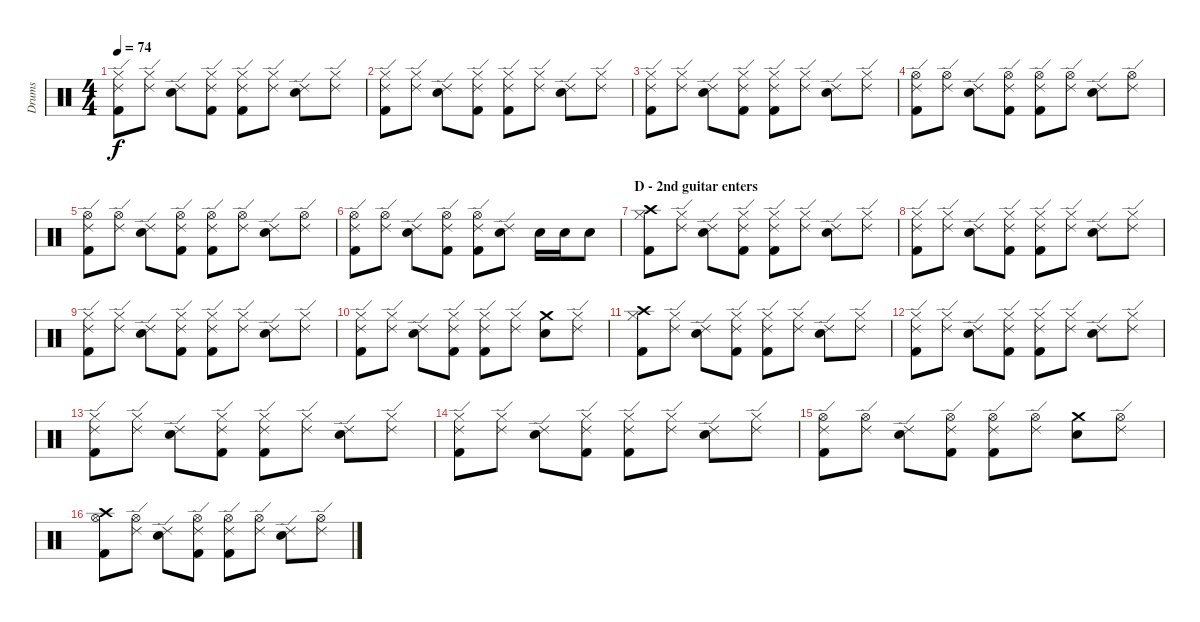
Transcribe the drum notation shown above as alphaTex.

\track ("Drums" "Drums") {instrument percussion}
\staff {score}
\articulation defaults
\ts (4 4)
\tempo 74
\clef neutral
\ks c
("Hi-Hat (closed)" "Ride (edge) 2" "Kick (hit) 2").8{dy f} ("Hi-Hat (closed)" "Ride (edge) 2").8 ("Ride (edge) 2" "Snare (hit) 2").8 ("Hi-Hat (closed)" "Ride (edge) 2" "Kick (hit) 2").8 ("Hi-Hat (closed)" "Ride (edge) 2" "Kick (hit) 2").8 ("Hi-Hat (closed)" "Ride (edge) 2").8 ("Ride (edge) 2" "Snare (hit) 2").8 ("Hi-Hat (closed)" "Ride (edge) 2").8 |
("Hi-Hat (closed)" "Ride (edge) 2" "Kick (hit) 2").8 ("Hi-Hat (closed)" "Ride (edge) 2").8 ("Ride (edge) 2" "Snare (hit) 2").8 ("Hi-Hat (closed)" "Ride (edge) 2" "Kick (hit) 2").8 ("Hi-Hat (closed)" "Ride (edge) 2" "Kick (hit) 2").8 ("Hi-Hat (closed)" "Ride (edge) 2").8 ("Ride (edge) 2" "Snare (hit) 2").8 ("Hi-Hat (closed)" "Ride (edge) 2").8 |
("Hi-Hat (closed)" "Ride (edge) 2" "Kick (hit) 2").8 ("Hi-Hat (closed)" "Ride (edge) 2").8 ("Ride (edge) 2" "Snare (hit) 2").8 ("Hi-Hat (closed)" "Ride (edge) 2" "Kick (hit) 2").8 ("Hi-Hat (closed)" "Ride (edge) 2" "Kick (hit) 2").8 ("Hi-Hat (closed)" "Ride (edge) 2").8 ("Ride (edge) 2" "Snare (hit) 2").8 ("Hi-Hat (closed)" "Ride (edge) 2").8 |
("Hi-Hat (open)" "Ride (edge) 2" "Kick (hit) 2").8 ("Hi-Hat (open)" "Ride (edge) 2").8 ("Ride (edge) 2" "Snare (hit) 2").8 ("Hi-Hat (open)" "Ride (edge) 2" "Kick (hit) 2").8 ("Hi-Hat (open)" "Ride (edge) 2" "Kick (hit) 2").8 ("Hi-Hat (open)" "Ride (edge) 2").8 ("Ride (edge) 2" "Snare (hit) 2").8 ("Hi-Hat (open)" "Ride (edge) 2").8 |
("Hi-Hat (open)" "Ride (edge) 2" "Kick (hit) 2").8 ("Hi-Hat (open)" "Ride (edge) 2").8 ("Ride (edge) 2" "Snare (hit) 2").8 ("Hi-Hat (open)" "Ride (edge) 2" "Kick (hit) 2").8 ("Hi-Hat (open)" "Ride (edge) 2" "Kick (hit) 2").8 ("Hi-Hat (open)" "Ride (edge) 2").8 ("Ride (edge) 2" "Snare (hit) 2").8 ("Hi-Hat (open)" "Ride (edge) 2").8 |
("Hi-Hat (open)" "Ride (edge) 2" "Kick (hit) 2").8 ("Hi-Hat (open)" "Ride (edge) 2").8 ("Ride (edge) 2" "Snare (hit) 2").8 ("Hi-Hat (open)" "Ride (edge) 2" "Kick (hit) 2").8 ("Hi-Hat (open)" "Ride (edge) 2" "Kick (hit) 2").8 ("Ride (edge) 2" "Snare (hit) 2").8 "Snare (hit) 2".16 "Snare (hit) 2".16 "Snare (hit) 2".8 |
\section ("" "D - 2nd guitar enters")
("Hi-Hat (closed)" "Crash high (hit)" "Kick (hit) 2").8 ("Hi-Hat (closed)" "Ride (edge) 2").8 ("Ride (edge) 2" "Snare (hit) 2").8 ("Hi-Hat (closed)" "Ride (edge) 2" "Kick (hit) 2").8 ("Hi-Hat (closed)" "Ride (edge) 2" "Kick (hit) 2").8 ("Hi-Hat (closed)" "Ride (edge) 2").8 ("Ride (edge) 2" "Snare (hit) 2").8 ("Hi-Hat (closed)" "Ride (edge) 2").8 |
("Hi-Hat (closed)" "Ride (edge) 2" "Kick (hit) 2").8 ("Hi-Hat (closed)" "Ride (edge) 2").8 ("Ride (edge) 2" "Snare (hit) 2").8 ("Hi-Hat (closed)" "Ride (edge) 2" "Kick (hit) 2").8 ("Hi-Hat (closed)" "Ride (edge) 2" "Kick (hit) 2").8 ("Hi-Hat (closed)" "Ride (edge) 2").8 ("Ride (edge) 2" "Snare (hit) 2").8 ("Hi-Hat (closed)" "Ride (edge) 2").8 |
("Hi-Hat (closed)" "Ride (edge) 2" "Kick (hit) 2").8 ("Hi-Hat (closed)" "Ride (edge) 2").8 ("Ride (edge) 2" "Snare (hit) 2").8 ("Hi-Hat (closed)" "Ride (edge) 2" "Kick (hit) 2").8 ("Hi-Hat (closed)" "Ride (edge) 2" "Kick (hit) 2").8 ("Hi-Hat (closed)" "Ride (edge) 2").8 ("Ride (edge) 2" "Snare (hit) 2").8 ("Hi-Hat (closed)" "Ride (edge) 2").8 |
("Hi-Hat (closed)" "Ride (edge) 2" "Kick (hit) 2").8 ("Hi-Hat (closed)" "Ride (edge) 2").8 ("Ride (edge) 2" "Snare (hit) 2").8 ("Hi-Hat (closed)" "Ride (edge) 2" "Kick (hit) 2").8 ("Hi-Hat (closed)" "Ride (edge) 2" "Kick (hit) 2").8 ("Hi-Hat (closed)" "Ride (edge) 2").8 ("Crash medium (hit)" "Snare (hit) 2").8 ("Hi-Hat (closed)" "Ride (edge) 2").8 |
("Hi-Hat (closed)" "Crash high (hit)" "Kick (hit) 2").8 ("Hi-Hat (closed)" "Ride (edge) 2").8 ("Ride (edge) 2" "Snare (hit) 2").8 ("Hi-Hat (closed)" "Ride (edge) 2" "Kick (hit) 2").8 ("Hi-Hat (closed)" "Ride (edge) 2" "Kick (hit) 2").8 ("Hi-Hat (closed)" "Ride (edge) 2").8 ("Ride (edge) 2" "Snare (hit) 2").8 ("Hi-Hat (closed)" "Ride (edge) 2").8 |
("Hi-Hat (closed)" "Ride (edge) 2" "Kick (hit) 2").8 ("Hi-Hat (closed)" "Ride (edge) 2").8 ("Ride (edge) 2" "Snare (hit) 2").8 ("Hi-Hat (closed)" "Ride (edge) 2" "Kick (hit) 2").8 ("Hi-Hat (closed)" "Ride (edge) 2" "Kick (hit) 2").8 ("Hi-Hat (closed)" "Ride (edge) 2").8 ("Ride (edge) 2" "Snare (hit) 2").8 ("Hi-Hat (closed)" "Ride (edge) 2").8 |
("Hi-Hat (closed)" "Ride (edge) 2" "Kick (hit) 2").8 ("Hi-Hat (closed)" "Ride (edge) 2").8 ("Ride (edge) 2" "Snare (hit) 2").8 ("Hi-Hat (closed)" "Ride (edge) 2" "Kick (hit) 2").8 ("Hi-Hat (closed)" "Ride (edge) 2" "Kick (hit) 2").8 ("Hi-Hat (closed)" "Ride (edge) 2").8 ("Ride (edge) 2" "Snare (hit) 2").8 ("Hi-Hat (closed)" "Ride (edge) 2").8 |
("Hi-Hat (closed)" "Ride (edge) 2" "Kick (hit) 2").8 ("Hi-Hat (closed)" "Ride (edge) 2").8 ("Ride (edge) 2" "Snare (hit) 2").8 ("Hi-Hat (closed)" "Ride (edge) 2" "Kick (hit) 2").8 ("Hi-Hat (closed)" "Ride (edge) 2" "Kick (hit) 2").8 ("Hi-Hat (closed)" "Ride (edge) 2").8 ("Ride (edge) 2" "Snare (hit) 2").8 ("Hi-Hat (closed)" "Ride (edge) 2").8 |
("Hi-Hat (open)" "Ride (edge) 2" "Kick (hit) 2").8 ("Hi-Hat (open)" "Ride (edge) 2").8 ("Ride (edge) 2" "Snare (hit) 2").8 ("Hi-Hat (open)" "Ride (edge) 2" "Kick (hit) 2").8 ("Hi-Hat (open)" "Ride (edge) 2" "Kick (hit) 2").8 ("Hi-Hat (open)" "Ride (edge) 2").8 ("Crash medium (hit)" "Snare (hit) 2").8 ("Hi-Hat (open)" "Ride (edge) 2").8 |
("Hi-Hat (open)" "Crash high (hit)" "Kick (hit) 2").8 ("Hi-Hat (open)" "Ride (edge) 2").8 ("Ride (edge) 2" "Snare (hit) 2").8 ("Hi-Hat (open)" "Ride (edge) 2" "Kick (hit) 2").8 ("Hi-Hat (open)" "Ride (edge) 2" "Kick (hit) 2").8 ("Hi-Hat (open)" "Ride (edge) 2").8 ("Ride (edge) 2" "Snare (hit) 2").8 ("Hi-Hat (open)" "Ride (edge) 2").8
